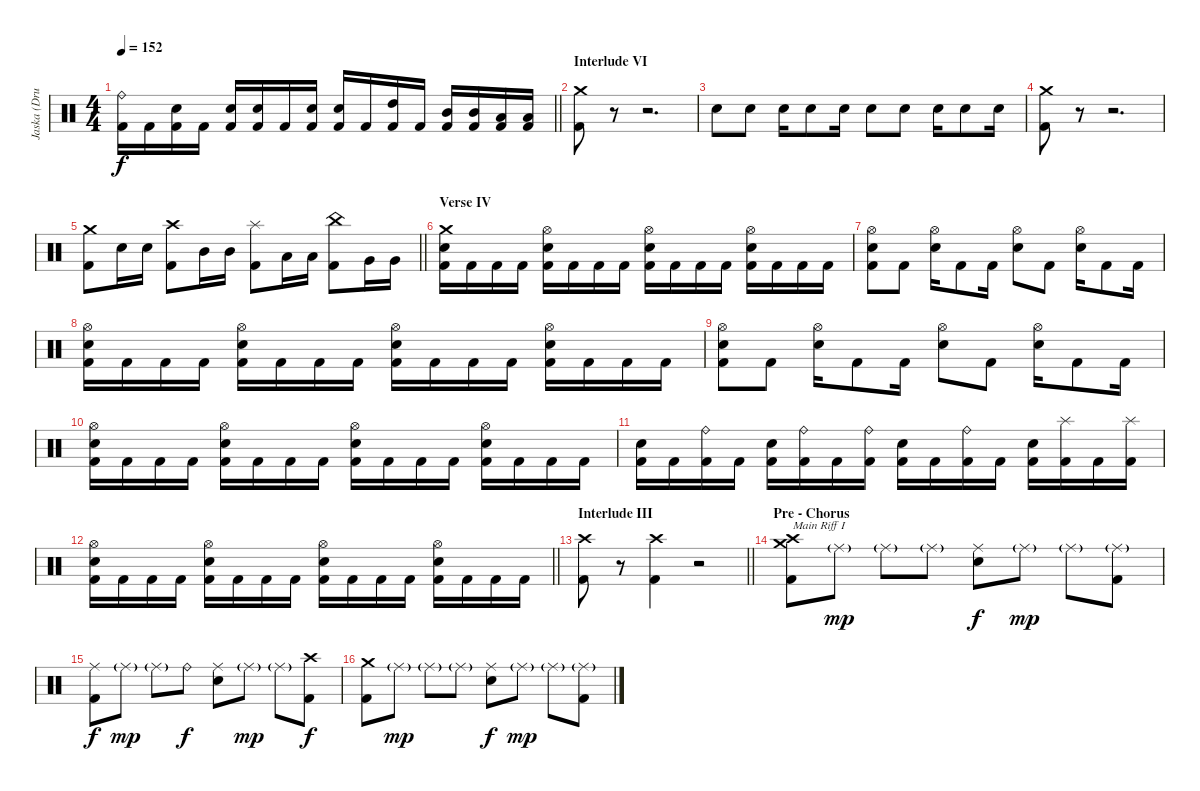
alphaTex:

\track ("Jaska (Drums)" "Jaska (Dru") {instrument percussion}
\staff {score}
\articulation defaults
\ts (4 4)
\tempo 152
\clef neutral
\barLineRight lightlight
\ks c
("Ride (bell)" "Kick (hit) 2").16{dy f} "Kick (hit) 2".16 ("Electric Snare (hit)" "Kick (hit) 2").16 "Kick (hit) 2".16 ("Electric Snare (hit)" "Kick (hit) 2").16 ("Electric Snare (hit)" "Kick (hit) 2").16 "Kick (hit) 2".16 ("Electric Snare (hit)" "Kick (hit) 2").16 ("Electric Snare (hit)" "Kick (hit) 2").16 "Kick (hit) 2".16 ("High Tom (hit)" "Kick (hit) 2").16 "Kick (hit) 2".16 ("Mid Tom (hit)" "Kick (hit) 2").16 ("Mid Tom (hit)" "Kick (hit) 2").16 ("Low Tom (hit)" "Kick (hit) 2").16 ("Low Tom (hit)" "Kick (hit) 2").16 |
\section ("" "Interlude VI")
("Crash medium (hit)" "Kick (hit) 2").8{volume 16 balance 8} r.8{volume 0} r.2{d} |
"Electric Snare (hit)".8{volume 16} "Electric Snare (hit)".8 "Electric Snare (hit)".16 "Electric Snare (hit)".8 "Electric Snare (hit)".16 "Electric Snare (hit)".8 "Electric Snare (hit)".8 "Electric Snare (hit)".16 "Electric Snare (hit)".8 "Electric Snare (hit)".16 |
("Crash medium (hit)" "Kick (hit) 2").8{volume 16 balance 8} r.8{volume 0} r.2{d} |
\barLineRight lightlight
("Crash medium (hit)" "Kick (hit) 2").8{volume 16} "Electric Snare (hit)".16 "Electric Snare (hit)".16 ("Crash high (hit)" "Kick (hit) 2").8 "Mid Tom (hit)".16 "Mid Tom (hit)".16 ("Splash (hit)" "Kick (hit) 2").8 "Low Tom (hit)".16 "Low Tom (hit)".16 ("China (hit)" "Kick (hit) 2").8 "Very Low Tom (hit)".16 "Very Low Tom (hit)".16 |
\section ("" "Verse IV")
("Crash medium (hit)" "Electric Snare (hit)" "Kick (hit) 2").16 "Kick (hit) 2".16 "Kick (hit) 2".16 "Kick (hit) 2".16 ("Hi-Hat (open)" "Electric Snare (hit)" "Kick (hit) 2").16 "Kick (hit) 2".16 "Kick (hit) 2".16 "Kick (hit) 2".16 ("Hi-Hat (open)" "Electric Snare (hit)" "Kick (hit) 2").16 "Kick (hit) 2".16 "Kick (hit) 2".16 "Kick (hit) 2".16 ("Hi-Hat (open)" "Electric Snare (hit)" "Kick (hit) 2").16 "Kick (hit) 2".16 "Kick (hit) 2".16 "Kick (hit) 2".16 |
("Hi-Hat (open)" "Electric Snare (hit)" "Kick (hit) 2").8 "Kick (hit) 2".8 ("Hi-Hat (open)" "Electric Snare (hit)").16 "Kick (hit) 2".8 "Kick (hit) 2".16 ("Hi-Hat (open)" "Electric Snare (hit)").8 "Kick (hit) 2".8 ("Hi-Hat (open)" "Electric Snare (hit)").16 "Kick (hit) 2".8 "Kick (hit) 2".16 |
("Hi-Hat (open)" "Electric Snare (hit)" "Kick (hit) 2").16 "Kick (hit) 2".16 "Kick (hit) 2".16 "Kick (hit) 2".16 ("Hi-Hat (open)" "Electric Snare (hit)" "Kick (hit) 2").16 "Kick (hit) 2".16 "Kick (hit) 2".16 "Kick (hit) 2".16 ("Hi-Hat (open)" "Electric Snare (hit)" "Kick (hit) 2").16 "Kick (hit) 2".16 "Kick (hit) 2".16 "Kick (hit) 2".16 ("Hi-Hat (open)" "Electric Snare (hit)" "Kick (hit) 2").16 "Kick (hit) 2".16 "Kick (hit) 2".16 "Kick (hit) 2".16 |
("Hi-Hat (open)" "Electric Snare (hit)" "Kick (hit) 2").8 "Kick (hit) 2".8 ("Hi-Hat (open)" "Electric Snare (hit)").16 "Kick (hit) 2".8 "Kick (hit) 2".16 ("Hi-Hat (open)" "Electric Snare (hit)").8 "Kick (hit) 2".8 ("Hi-Hat (open)" "Electric Snare (hit)").16 "Kick (hit) 2".8 "Kick (hit) 2".16 |
("Hi-Hat (open)" "Electric Snare (hit)" "Kick (hit) 2").16 "Kick (hit) 2".16 "Kick (hit) 2".16 "Kick (hit) 2".16 ("Hi-Hat (open)" "Electric Snare (hit)" "Kick (hit) 2").16 "Kick (hit) 2".16 "Kick (hit) 2".16 "Kick (hit) 2".16 ("Hi-Hat (open)" "Electric Snare (hit)" "Kick (hit) 2").16 "Kick (hit) 2".16 "Kick (hit) 2".16 "Kick (hit) 2".16 ("Hi-Hat (open)" "Electric Snare (hit)" "Kick (hit) 2").16 "Kick (hit) 2".16 "Kick (hit) 2".16 "Kick (hit) 2".16 |
("Electric Snare (hit)" "Kick (hit) 2").16 "Kick (hit) 2".16 ("Ride (bell)" "Kick (hit) 2").16 "Kick (hit) 2".16 ("Electric Snare (hit)" "Kick (hit) 2").16 ("Ride (bell)" "Kick (hit) 2").16 "Kick (hit) 2".16 ("Ride (bell)" "Kick (hit) 2").16 ("Electric Snare (hit)" "Kick (hit) 2").16 "Kick (hit) 2".16 ("Ride (bell)" "Kick (hit) 2").16 "Kick (hit) 2".16 ("Electric Snare (hit)" "Kick (hit) 2").16 ("Splash (hit)" "Kick (hit) 2").16 "Kick (hit) 2".16 ("Splash (hit)" "Kick (hit) 2").16 |
\barLineRight lightlight
("Hi-Hat (open)" "Electric Snare (hit)" "Kick (hit) 2").16 "Kick (hit) 2".16 "Kick (hit) 2".16 "Kick (hit) 2".16 ("Hi-Hat (open)" "Electric Snare (hit)" "Kick (hit) 2").16 "Kick (hit) 2".16 "Kick (hit) 2".16 "Kick (hit) 2".16 ("Hi-Hat (open)" "Electric Snare (hit)" "Kick (hit) 2").16 "Kick (hit) 2".16 "Kick (hit) 2".16 "Kick (hit) 2".16 ("Hi-Hat (open)" "Electric Snare (hit)" "Kick (hit) 2").16 "Kick (hit) 2".16 "Kick (hit) 2".16 "Kick (hit) 2".16 |
\section ("" "Interlude III")
\barLineRight lightlight
("Crash high (hit)" "Kick (hit) 2").8{volume 16} r.8{volume 0} ("Crash high (hit)" "Kick (hit) 2").4{volume 16} r.2{volume 0} |
\section ("" "Pre - Chorus")
("Crash medium (hit)" "Crash high (hit)" "Kick (hit) 2").8{txt "Main Riff I" volume 16 balance 8} "Ride (middle)"{g}.8{dy mp} "Ride (middle)"{g}.8 "Ride (middle)"{g}.8 ("Ride (middle)" "Electric Snare (hit)").8{dy f} "Ride (middle)"{g}.8{dy mp} "Ride (middle)"{g}.8 ("Ride (middle)"{g} "Kick (hit) 2").8 |
("Ride (middle)" "Kick (hit) 2").8{dy f} "Ride (middle)"{g}.8{dy mp} "Ride (middle)"{g}.8 "Ride (bell)".8{dy f} ("Ride (middle)" "Electric Snare (hit)").8 "Ride (middle)"{g}.8{dy mp} "Ride (middle)"{g}.8 ("Crash high (hit)" "Kick (hit) 2").8{dy f} |
("Crash medium (hit)" "Kick (hit) 2").8 "Ride (middle)"{g}.8{dy mp} "Ride (middle)"{g}.8 "Ride (middle)"{g}.8 ("Ride (middle)" "Electric Snare (hit)").8{dy f} "Ride (middle)"{g}.8{dy mp} "Ride (middle)"{g}.8 ("Ride (middle)"{g} "Kick (hit) 2").8
